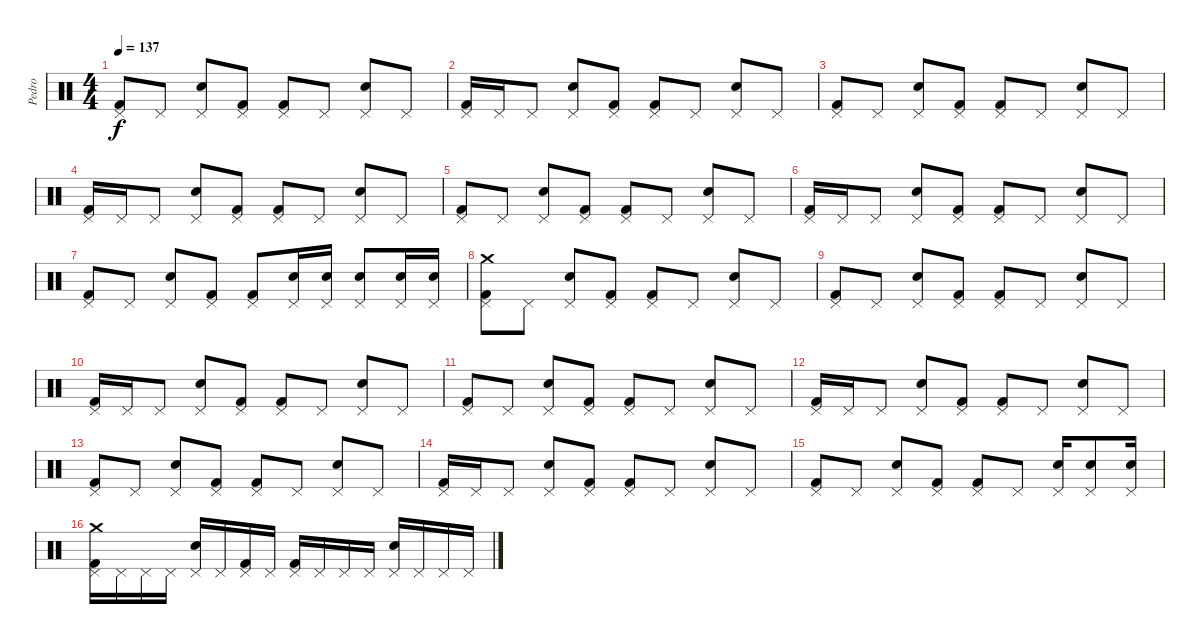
\track ("Pedro" "Pedro") {instrument percussion}
\staff {score}
\articulation defaults
\ts (4 4)
\tempo 137
\clef neutral
\ks c
("Pedal Hi-Hat (hit)" "Kick (hit) 2").8{dy f} "Pedal Hi-Hat (hit)".8 ("Pedal Hi-Hat (hit)" "Snare (hit) 2").8 ("Pedal Hi-Hat (hit)" "Kick (hit) 2").8 ("Pedal Hi-Hat (hit)" "Kick (hit) 2").8 "Pedal Hi-Hat (hit)".8 ("Pedal Hi-Hat (hit)" "Snare (hit) 2").8 "Pedal Hi-Hat (hit)".8 |
("Pedal Hi-Hat (hit)" "Kick (hit) 2").16 "Pedal Hi-Hat (hit)".16 "Pedal Hi-Hat (hit)".8 ("Pedal Hi-Hat (hit)" "Snare (hit) 2").8 ("Pedal Hi-Hat (hit)" "Kick (hit) 2").8 ("Pedal Hi-Hat (hit)" "Kick (hit) 2").8 "Pedal Hi-Hat (hit)".8 ("Pedal Hi-Hat (hit)" "Snare (hit) 2").8 "Pedal Hi-Hat (hit)".8 |
("Pedal Hi-Hat (hit)" "Kick (hit) 2").8 "Pedal Hi-Hat (hit)".8 ("Pedal Hi-Hat (hit)" "Snare (hit) 2").8 ("Pedal Hi-Hat (hit)" "Kick (hit) 2").8 ("Pedal Hi-Hat (hit)" "Kick (hit) 2").8 "Pedal Hi-Hat (hit)".8 ("Pedal Hi-Hat (hit)" "Snare (hit) 2").8 "Pedal Hi-Hat (hit)".8 |
("Pedal Hi-Hat (hit)" "Kick (hit) 2").16 "Pedal Hi-Hat (hit)".16 "Pedal Hi-Hat (hit)".8 ("Pedal Hi-Hat (hit)" "Snare (hit) 2").8 ("Pedal Hi-Hat (hit)" "Kick (hit) 2").8 ("Pedal Hi-Hat (hit)" "Kick (hit) 2").8 "Pedal Hi-Hat (hit)".8 ("Pedal Hi-Hat (hit)" "Snare (hit) 2").8 "Pedal Hi-Hat (hit)".8 |
("Pedal Hi-Hat (hit)" "Kick (hit) 2").8 "Pedal Hi-Hat (hit)".8 ("Pedal Hi-Hat (hit)" "Snare (hit) 2").8 ("Pedal Hi-Hat (hit)" "Kick (hit) 2").8 ("Pedal Hi-Hat (hit)" "Kick (hit) 2").8 "Pedal Hi-Hat (hit)".8 ("Pedal Hi-Hat (hit)" "Snare (hit) 2").8 "Pedal Hi-Hat (hit)".8 |
("Pedal Hi-Hat (hit)" "Kick (hit) 2").16 "Pedal Hi-Hat (hit)".16 "Pedal Hi-Hat (hit)".8 ("Pedal Hi-Hat (hit)" "Snare (hit) 2").8 ("Pedal Hi-Hat (hit)" "Kick (hit) 2").8 ("Pedal Hi-Hat (hit)" "Kick (hit) 2").8 "Pedal Hi-Hat (hit)".8 ("Pedal Hi-Hat (hit)" "Snare (hit) 2").8 "Pedal Hi-Hat (hit)".8 |
("Kick (hit) 2" "Pedal Hi-Hat (hit)").8 "Pedal Hi-Hat (hit)".8 ("Snare (hit) 2" "Pedal Hi-Hat (hit)").8 ("Kick (hit) 2" "Pedal Hi-Hat (hit)").8 ("Pedal Hi-Hat (hit)" "Kick (hit) 2").8 ("Pedal Hi-Hat (hit)" "Snare (hit) 2").16 ("Pedal Hi-Hat (hit)" "Snare (hit) 2").16 ("Pedal Hi-Hat (hit)" "Snare (hit) 2").8 ("Pedal Hi-Hat (hit)" "Snare (hit) 2").16 ("Pedal Hi-Hat (hit)" "Snare (hit) 2").16 |
("Crash medium (hit)" "Pedal Hi-Hat (hit)" "Kick (hit) 2").8 "Pedal Hi-Hat (hit)".8 ("Pedal Hi-Hat (hit)" "Snare (hit) 2").8 ("Pedal Hi-Hat (hit)" "Kick (hit) 2").8 ("Pedal Hi-Hat (hit)" "Kick (hit) 2").8 "Pedal Hi-Hat (hit)".8 ("Pedal Hi-Hat (hit)" "Snare (hit) 2").8 "Pedal Hi-Hat (hit)".8 |
("Pedal Hi-Hat (hit)" "Kick (hit) 2").8 "Pedal Hi-Hat (hit)".8 ("Pedal Hi-Hat (hit)" "Snare (hit) 2").8 ("Pedal Hi-Hat (hit)" "Kick (hit) 2").8 ("Pedal Hi-Hat (hit)" "Kick (hit) 2").8 "Pedal Hi-Hat (hit)".8 ("Pedal Hi-Hat (hit)" "Snare (hit) 2").8 "Pedal Hi-Hat (hit)".8 |
("Pedal Hi-Hat (hit)" "Kick (hit) 2").16 "Pedal Hi-Hat (hit)".16 "Pedal Hi-Hat (hit)".8 ("Pedal Hi-Hat (hit)" "Snare (hit) 2").8 ("Pedal Hi-Hat (hit)" "Kick (hit) 2").8 ("Pedal Hi-Hat (hit)" "Kick (hit) 2").8 "Pedal Hi-Hat (hit)".8 ("Pedal Hi-Hat (hit)" "Snare (hit) 2").8 "Pedal Hi-Hat (hit)".8 |
("Pedal Hi-Hat (hit)" "Kick (hit) 2").8 "Pedal Hi-Hat (hit)".8 ("Pedal Hi-Hat (hit)" "Snare (hit) 2").8 ("Pedal Hi-Hat (hit)" "Kick (hit) 2").8 ("Pedal Hi-Hat (hit)" "Kick (hit) 2").8 "Pedal Hi-Hat (hit)".8 ("Pedal Hi-Hat (hit)" "Snare (hit) 2").8 "Pedal Hi-Hat (hit)".8 |
("Pedal Hi-Hat (hit)" "Kick (hit) 2").16 "Pedal Hi-Hat (hit)".16 "Pedal Hi-Hat (hit)".8 ("Pedal Hi-Hat (hit)" "Snare (hit) 2").8 ("Pedal Hi-Hat (hit)" "Kick (hit) 2").8 ("Pedal Hi-Hat (hit)" "Kick (hit) 2").8 "Pedal Hi-Hat (hit)".8 ("Pedal Hi-Hat (hit)" "Snare (hit) 2").8 "Pedal Hi-Hat (hit)".8 |
("Pedal Hi-Hat (hit)" "Kick (hit) 2").8 "Pedal Hi-Hat (hit)".8 ("Pedal Hi-Hat (hit)" "Snare (hit) 2").8 ("Pedal Hi-Hat (hit)" "Kick (hit) 2").8 ("Pedal Hi-Hat (hit)" "Kick (hit) 2").8 "Pedal Hi-Hat (hit)".8 ("Pedal Hi-Hat (hit)" "Snare (hit) 2").8 "Pedal Hi-Hat (hit)".8 |
("Pedal Hi-Hat (hit)" "Kick (hit) 2").16 "Pedal Hi-Hat (hit)".16 "Pedal Hi-Hat (hit)".8 ("Pedal Hi-Hat (hit)" "Snare (hit) 2").8 ("Pedal Hi-Hat (hit)" "Kick (hit) 2").8 ("Pedal Hi-Hat (hit)" "Kick (hit) 2").8 "Pedal Hi-Hat (hit)".8 ("Pedal Hi-Hat (hit)" "Snare (hit) 2").8 "Pedal Hi-Hat (hit)".8 |
("Kick (hit) 2" "Pedal Hi-Hat (hit)").8 "Pedal Hi-Hat (hit)".8 ("Snare (hit) 2" "Pedal Hi-Hat (hit)").8 ("Kick (hit) 2" "Pedal Hi-Hat (hit)").8 ("Kick (hit) 2" "Pedal Hi-Hat (hit)").8 "Pedal Hi-Hat (hit)".8 ("Pedal Hi-Hat (hit)" "Snare (hit) 2").16 ("Pedal Hi-Hat (hit)" "Snare (hit) 2").8 ("Pedal Hi-Hat (hit)" "Snare (hit) 2").16 |
("Pedal Hi-Hat (hit)" "Crash medium (hit)" "Kick (hit) 2").16 "Pedal Hi-Hat (hit)".16 "Pedal Hi-Hat (hit)".16 "Pedal Hi-Hat (hit)".16 ("Pedal Hi-Hat (hit)" "Snare (hit) 2").16 "Pedal Hi-Hat (hit)".16 ("Pedal Hi-Hat (hit)" "Kick (hit) 2").16 "Pedal Hi-Hat (hit)".16 ("Pedal Hi-Hat (hit)" "Kick (hit) 2").16 "Pedal Hi-Hat (hit)".16 "Pedal Hi-Hat (hit)".16 "Pedal Hi-Hat (hit)".16 ("Pedal Hi-Hat (hit)" "Snare (hit) 2").16 "Pedal Hi-Hat (hit)".16 "Pedal Hi-Hat (hit)".16 "Pedal Hi-Hat (hit)".16
